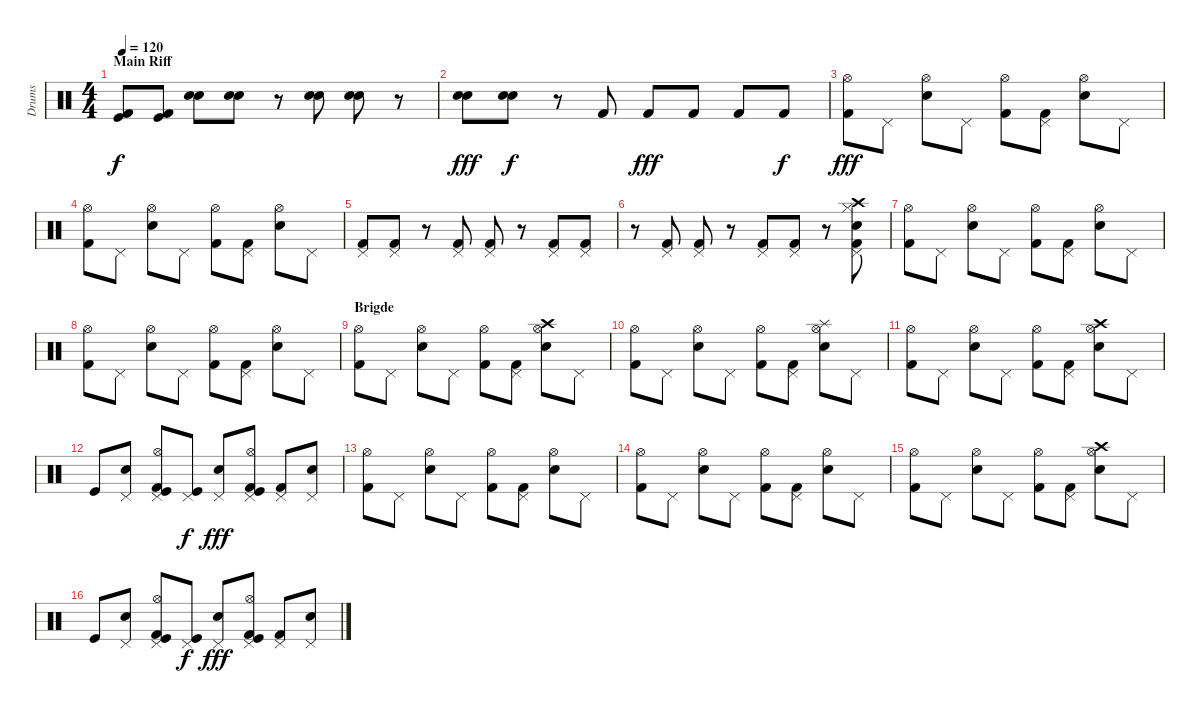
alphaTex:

\track ("Drums" "Drums") {instrument percussion}
\staff {score}
\articulation defaults
\ts (4 4)
\section ("" "Main Riff")
\tempo 120
\clef neutral
\ks c
("Kick (hit)" "Kick (hit) 2").8{dy f} ("Kick (hit)" "Kick (hit) 2").8 ("Snare (hit) 2" "Electric Snare (hit)").8 ("Snare (hit) 2" "Electric Snare (hit)").8 r.8 ("Snare (hit) 2" "Electric Snare (hit)").8 ("Snare (hit) 2" "Electric Snare (hit)").8 r.8 |
("Snare (hit) 2" "Electric Snare (hit)").8{dy fff} ("Snare (hit) 2" "Electric Snare (hit)").8{dy f} r.8 "Kick (hit) 2".8 "Kick (hit) 2".8{dy fff} "Kick (hit) 2".8 "Kick (hit) 2".8 "Kick (hit) 2".8{dy f} |
("Hi-Hat (open)" "Kick (hit) 2").8{dy fff} "Pedal Hi-Hat (hit)".8 ("Hi-Hat (open)" "Snare (hit) 2").8 "Pedal Hi-Hat (hit)".8 ("Hi-Hat (open)" "Kick (hit) 2").8 ("Pedal Hi-Hat (hit)" "Kick (hit) 2").8 ("Hi-Hat (open)" "Snare (hit) 2").8 "Pedal Hi-Hat (hit)".8 |
("Hi-Hat (open)" "Kick (hit) 2").8 "Pedal Hi-Hat (hit)".8 ("Hi-Hat (open)" "Snare (hit) 2").8 "Pedal Hi-Hat (hit)".8 ("Hi-Hat (open)" "Kick (hit) 2").8 ("Pedal Hi-Hat (hit)" "Kick (hit) 2").8 ("Hi-Hat (open)" "Snare (hit) 2").8 "Pedal Hi-Hat (hit)".8 |
("Pedal Hi-Hat (hit)" "Kick (hit) 2").8 ("Pedal Hi-Hat (hit)" "Kick (hit) 2").8 r.8 ("Pedal Hi-Hat (hit)" "Kick (hit) 2").8 ("Pedal Hi-Hat (hit)" "Kick (hit) 2").8 r.8 ("Pedal Hi-Hat (hit)" "Kick (hit) 2").8 ("Pedal Hi-Hat (hit)" "Kick (hit) 2").8 |
r.8 ("Pedal Hi-Hat (hit)" "Kick (hit) 2").8 ("Pedal Hi-Hat (hit)" "Kick (hit) 2").8 r.8 ("Pedal Hi-Hat (hit)" "Kick (hit) 2").8 ("Pedal Hi-Hat (hit)" "Kick (hit) 2").8 r.8 ("Pedal Hi-Hat (hit)" "Kick (hit) 2" "Crash high (hit)" "Snare (hit) 2" "Hi-Hat (closed)").8 |
("Hi-Hat (open)" "Kick (hit) 2").8 "Pedal Hi-Hat (hit)".8 ("Hi-Hat (open)" "Snare (hit) 2").8 "Pedal Hi-Hat (hit)".8 ("Hi-Hat (open)" "Kick (hit) 2").8 ("Pedal Hi-Hat (hit)" "Kick (hit) 2").8 ("Hi-Hat (open)" "Snare (hit) 2").8 "Pedal Hi-Hat (hit)".8 |
("Hi-Hat (open)" "Kick (hit) 2").8 "Pedal Hi-Hat (hit)".8 ("Hi-Hat (open)" "Snare (hit) 2").8 "Pedal Hi-Hat (hit)".8 ("Hi-Hat (open)" "Kick (hit) 2").8 ("Pedal Hi-Hat (hit)" "Kick (hit) 2").8 ("Hi-Hat (open)" "Snare (hit) 2").8 "Pedal Hi-Hat (hit)".8 |
\section ("" "Brigde")
("Hi-Hat (open)" "Kick (hit) 2").8 "Pedal Hi-Hat (hit)".8 ("Hi-Hat (open)" "Snare (hit) 2").8 "Pedal Hi-Hat (hit)".8 ("Hi-Hat (open)" "Kick (hit) 2").8 ("Pedal Hi-Hat (hit)" "Kick (hit) 2").8 ("Hi-Hat (open)" "Snare (hit) 2" "Crash high (hit)").8 "Pedal Hi-Hat (hit)".8 |
("Hi-Hat (open)" "Kick (hit) 2").8 "Pedal Hi-Hat (hit)".8 ("Hi-Hat (open)" "Snare (hit) 2").8 "Pedal Hi-Hat (hit)".8 ("Hi-Hat (open)" "Kick (hit) 2").8 ("Pedal Hi-Hat (hit)" "Kick (hit) 2").8 ("Hi-Hat (open)" "Snare (hit) 2" "Splash (hit)").8 "Pedal Hi-Hat (hit)".8 |
("Hi-Hat (open)" "Kick (hit) 2").8 "Pedal Hi-Hat (hit)".8 ("Hi-Hat (open)" "Snare (hit) 2").8 "Pedal Hi-Hat (hit)".8 ("Hi-Hat (open)" "Kick (hit) 2").8 ("Pedal Hi-Hat (hit)" "Kick (hit) 2").8 ("Hi-Hat (open)" "Snare (hit) 2" "Crash high (hit)").8 "Pedal Hi-Hat (hit)".8 |
"Kick (hit)".8 ("Pedal Hi-Hat (hit)" "Snare (hit) 2").8 ("Hi-Hat (open)" "Pedal Hi-Hat (hit)" "Kick (hit)" "Kick (hit) 2").8 ("Kick (hit)" "Pedal Hi-Hat (hit)").8{dy f} ("Pedal Hi-Hat (hit)" "Snare (hit) 2").8{dy fff} ("Hi-Hat (open)" "Pedal Hi-Hat (hit)" "Kick (hit)" "Kick (hit) 2").8 ("Pedal Hi-Hat (hit)" "Kick (hit) 2").8 ("Pedal Hi-Hat (hit)" "Snare (hit) 2").8 |
("Hi-Hat (open)" "Kick (hit) 2").8 "Pedal Hi-Hat (hit)".8 ("Hi-Hat (open)" "Snare (hit) 2").8 "Pedal Hi-Hat (hit)".8 ("Hi-Hat (open)" "Kick (hit) 2").8 ("Pedal Hi-Hat (hit)" "Kick (hit) 2").8 ("Hi-Hat (open)" "Snare (hit) 2").8 "Pedal Hi-Hat (hit)".8 |
("Hi-Hat (open)" "Kick (hit) 2").8 "Pedal Hi-Hat (hit)".8 ("Hi-Hat (open)" "Snare (hit) 2").8 "Pedal Hi-Hat (hit)".8 ("Hi-Hat (open)" "Kick (hit) 2").8 ("Pedal Hi-Hat (hit)" "Kick (hit) 2").8 ("Hi-Hat (open)" "Snare (hit) 2").8 "Pedal Hi-Hat (hit)".8 |
("Hi-Hat (open)" "Kick (hit) 2").8 "Pedal Hi-Hat (hit)".8 ("Hi-Hat (open)" "Snare (hit) 2").8 "Pedal Hi-Hat (hit)".8 ("Hi-Hat (open)" "Kick (hit) 2").8 ("Pedal Hi-Hat (hit)" "Kick (hit) 2").8 ("Hi-Hat (open)" "Snare (hit) 2" "Crash high (hit)").8 "Pedal Hi-Hat (hit)".8 |
"Kick (hit)".8 ("Pedal Hi-Hat (hit)" "Snare (hit) 2").8 ("Hi-Hat (open)" "Pedal Hi-Hat (hit)" "Kick (hit)" "Kick (hit) 2").8 ("Kick (hit)" "Pedal Hi-Hat (hit)").8{dy f} ("Pedal Hi-Hat (hit)" "Snare (hit) 2").8{dy fff} ("Hi-Hat (open)" "Pedal Hi-Hat (hit)" "Kick (hit)" "Kick (hit) 2").8 ("Pedal Hi-Hat (hit)" "Kick (hit) 2").8 ("Pedal Hi-Hat (hit)" "Snare (hit) 2").8
